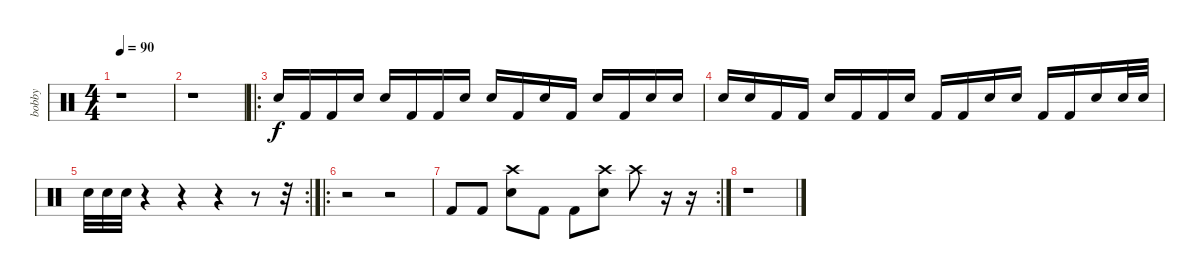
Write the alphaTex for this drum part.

\track ("bobby" "bobby") {instrument percussion}
\staff {score}
\articulation defaults
\ts (4 4)
\tempo 90
\clef neutral
\ks c
r.1{dy f} |
r.1 |
\ro "Snare (hit) 2".16 "Kick (hit) 2".16 "Kick (hit) 2".16 "Snare (hit) 2".16 "Snare (hit) 2".16 "Kick (hit) 2".16 "Kick (hit) 2".16 "Snare (hit) 2".16 "Snare (hit) 2".16 "Kick (hit) 2".16 "Snare (hit) 2".16 "Kick (hit) 2".16 "Snare (hit) 2".16 "Kick (hit) 2".16 "Snare (hit) 2".16 "Snare (hit) 2".16
|
"Snare (hit) 2".16 "Snare (hit) 2".16 "Kick (hit) 2".16 "Kick (hit) 2".16 "Snare (hit) 2".16 "Kick (hit) 2".16 "Kick (hit) 2".16 "Snare (hit) 2".16 "Kick (hit) 2".16 "Kick (hit) 2".16 "Snare (hit) 2".16 "Snare (hit) 2".16 "Kick (hit) 2".16 "Kick (hit) 2".16 "Snare (hit) 2".16 "Snare (hit) 2".32 "Snare (hit) 2".32 |
\rc 2 "Snare (hit) 2".32 "Snare (hit) 2".32 "Snare (hit) 2".32
r.4 r.4 r.4 r.8 r.32 |
\ro
r.2 r.2 |
\rc 2 "Kick (hit) 2".8 "Kick (hit) 2".8
("Crash high (hit)" "Snare (hit) 2").8 "Kick (hit) 2".8 "Kick (hit) 2".8 ("Crash high (hit)" "Snare (hit) 2").8 "Crash high (hit)".8 r.16 r.16 |
r.1
